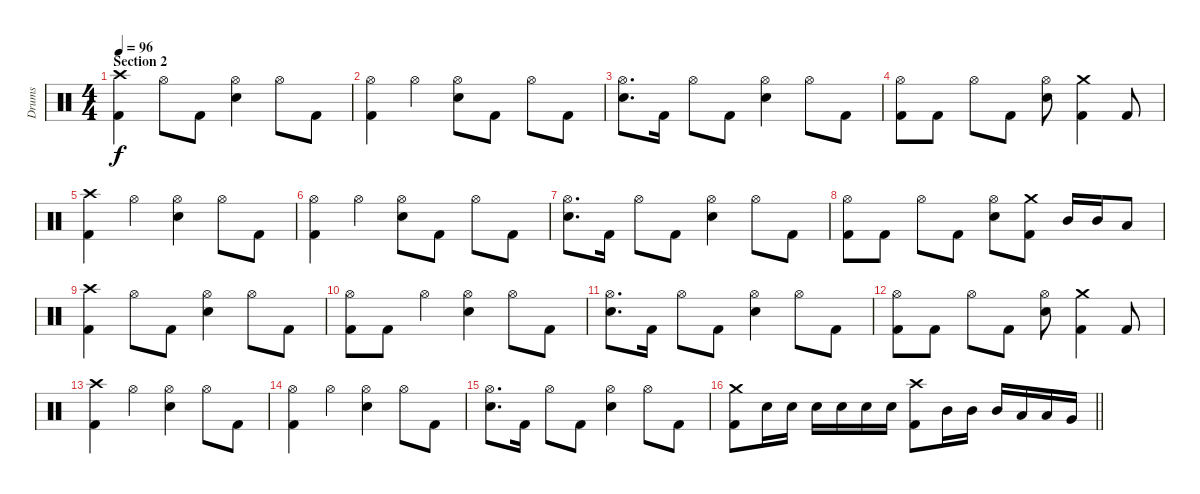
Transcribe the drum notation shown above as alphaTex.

\track ("Drums" "Drums") {instrument percussion}
\staff {score}
\articulation defaults
\ts (4 4)
\section ("" "Section 2")
\tempo 96
\clef neutral
\ks c
("Crash high (hit)" "Kick (hit) 2").4{dy f} "Hi-Hat (open)".8 "Kick (hit) 2".8 ("Hi-Hat (open)" "Electric Snare (hit)").4 "Hi-Hat (open)".8 "Kick (hit) 2".8 |
("Hi-Hat (open)" "Kick (hit) 2").4 "Hi-Hat (open)".4 ("Hi-Hat (open)" "Electric Snare (hit)").8 "Kick (hit) 2".8 "Hi-Hat (open)".8 "Kick (hit) 2".8 |
("Hi-Hat (open)" "Electric Snare (hit)").8{d} "Kick (hit) 2".16 "Hi-Hat (open)".8 "Kick (hit) 2".8 ("Hi-Hat (open)" "Electric Snare (hit)").4 "Hi-Hat (open)".8 "Kick (hit) 2".8 |
("Hi-Hat (open)" "Kick (hit) 2").8 "Kick (hit) 2".8 "Hi-Hat (open)".8 "Kick (hit) 2".8 ("Hi-Hat (open)" "Electric Snare (hit)").8 ("Crash medium (hit)" "Kick (hit) 2").4 "Kick (hit) 2".8 |
("Crash high (hit)" "Kick (hit) 2").4 "Hi-Hat (open)".4 ("Hi-Hat (open)" "Electric Snare (hit)").4 "Hi-Hat (open)".8 "Kick (hit) 2".8 |
("Hi-Hat (open)" "Kick (hit) 2").4 "Hi-Hat (open)".4 ("Hi-Hat (open)" "Electric Snare (hit)").8 "Kick (hit) 2".8 "Hi-Hat (open)".8 "Kick (hit) 2".8 |
("Hi-Hat (open)" "Electric Snare (hit)").8{d} "Kick (hit) 2".16 "Hi-Hat (open)".8 "Kick (hit) 2".8 ("Hi-Hat (open)" "Electric Snare (hit)").4 "Hi-Hat (open)".8 "Kick (hit) 2".8 |
("Hi-Hat (open)" "Kick (hit) 2").8 "Kick (hit) 2".8 "Hi-Hat (open)".8 "Kick (hit) 2".8 ("Hi-Hat (open)" "Electric Snare (hit)").8 ("Crash medium (hit)" "Kick (hit) 2").8 "Mid Tom (hit)".16 "Mid Tom (hit)".16 "Low Tom (hit)".8 |
("Crash high (hit)" "Kick (hit) 2").4 "Hi-Hat (open)".8 "Kick (hit) 2".8 ("Hi-Hat (open)" "Electric Snare (hit)").4 "Hi-Hat (open)".8 "Kick (hit) 2".8 |
("Hi-Hat (open)" "Kick (hit) 2").8 "Kick (hit) 2".8 "Hi-Hat (open)".4 ("Hi-Hat (open)" "Electric Snare (hit)").4 "Hi-Hat (open)".8 "Kick (hit) 2".8 |
("Hi-Hat (open)" "Electric Snare (hit)").8{d} "Kick (hit) 2".16 "Hi-Hat (open)".8 "Kick (hit) 2".8 ("Hi-Hat (open)" "Electric Snare (hit)").4 "Hi-Hat (open)".8 "Kick (hit) 2".8 |
("Hi-Hat (open)" "Kick (hit) 2").8 "Kick (hit) 2".8 "Hi-Hat (open)".8 "Kick (hit) 2".8 ("Hi-Hat (open)" "Electric Snare (hit)").8 ("Crash medium (hit)" "Kick (hit) 2").4 "Kick (hit) 2".8 |
("Crash high (hit)" "Kick (hit) 2").4 "Hi-Hat (open)".4 ("Hi-Hat (open)" "Electric Snare (hit)").4 "Hi-Hat (open)".8 "Kick (hit) 2".8 |
("Hi-Hat (open)" "Kick (hit) 2").4 "Hi-Hat (open)".4 ("Hi-Hat (open)" "Electric Snare (hit)").4 "Hi-Hat (open)".8 "Kick (hit) 2".8 |
("Hi-Hat (open)" "Electric Snare (hit)").8{d} "Kick (hit) 2".16 "Hi-Hat (open)".8 "Kick (hit) 2".8 ("Hi-Hat (open)" "Electric Snare (hit)").4 "Hi-Hat (open)".8 "Kick (hit) 2".8 |
\barLineRight lightlight
("Crash medium (hit)" "Kick (hit) 2").8 "Electric Snare (hit)".16 "Electric Snare (hit)".16 "Electric Snare (hit)".16 "Electric Snare (hit)".16 "Electric Snare (hit)".16 "Electric Snare (hit)".16 ("Crash high (hit)" "Kick (hit) 2").8 "Mid Tom (hit)".16 "Mid Tom (hit)".16 "Mid Tom (hit)".16 "Low Tom (hit)".16 "Low Tom (hit)".16 "Very Low Tom (hit)".16
